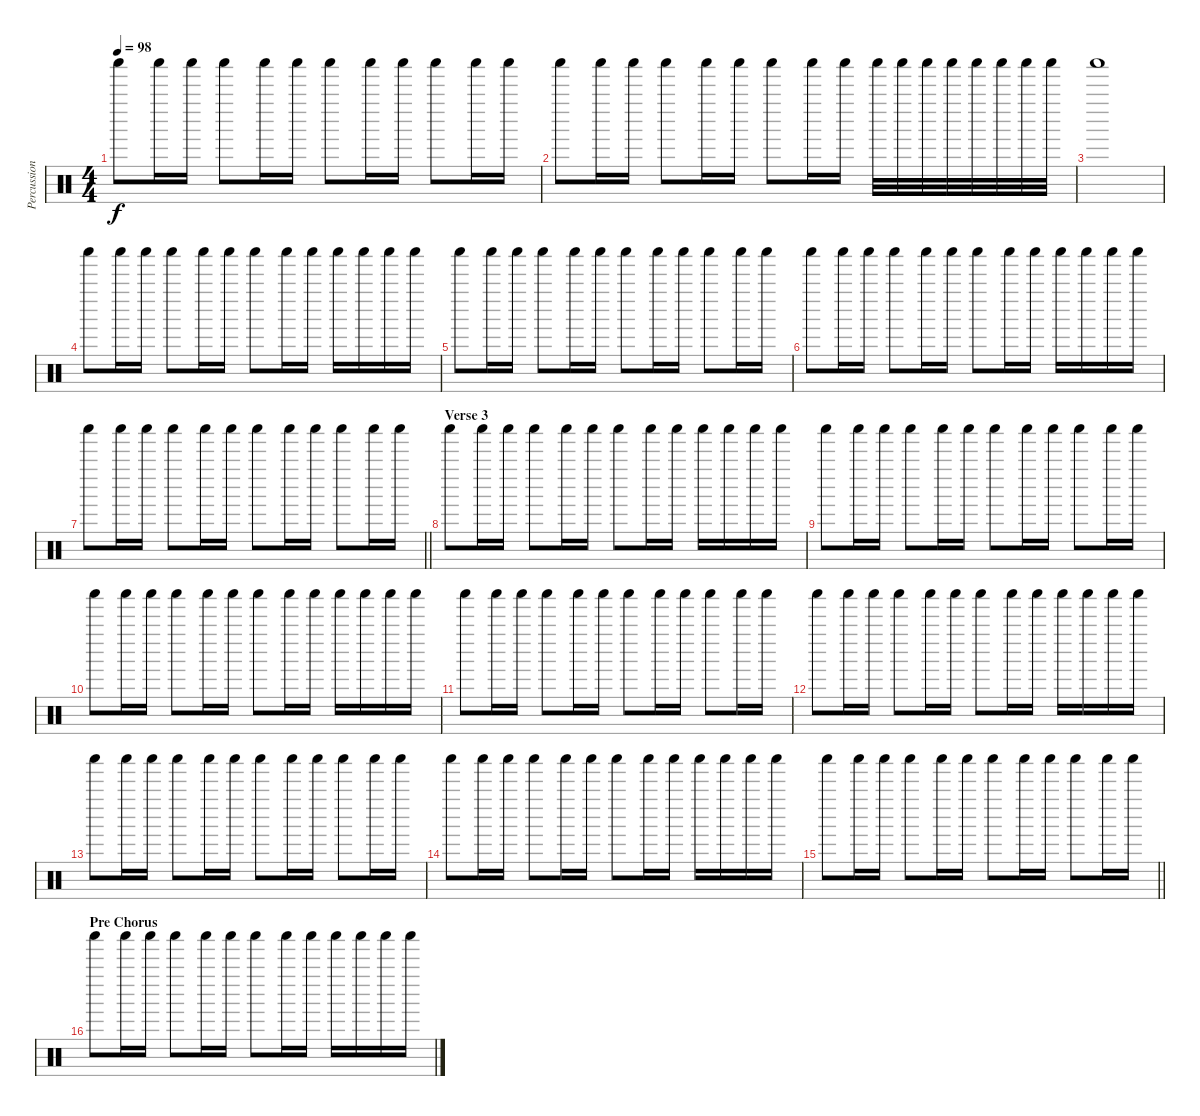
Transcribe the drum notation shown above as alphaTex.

\track ("Percussion" "Percussion") {instrument percussion}
\staff {score}
\articulation defaults
\ts (4 4)
\tempo 98
\clef neutral
\ks c "Shaker (hit)".8{dy f} "Shaker (hit)".16 "Shaker (hit)".16 "Shaker (hit)".8 "Shaker (hit)".16 "Shaker (hit)".16 "Shaker (hit)".8 "Shaker (hit)".16 "Shaker (hit)".16 "Shaker (hit)".8 "Shaker (hit)".16 "Shaker (hit)".16
|
"Shaker (hit)".8 "Shaker (hit)".16 "Shaker (hit)".16 "Shaker (hit)".8 "Shaker (hit)".16 "Shaker (hit)".16 "Shaker (hit)".8 "Shaker (hit)".16 "Shaker (hit)".16 "Shaker (hit)".32 "Shaker (hit)".32 "Shaker (hit)".32 "Shaker (hit)".32 "Shaker (hit)".32 "Shaker (hit)".32 "Shaker (hit)".32 "Shaker (hit)".32 |
"Shaker (hit)".1 |
"Shaker (hit)".8 "Shaker (hit)".16 "Shaker (hit)".16 "Shaker (hit)".8 "Shaker (hit)".16 "Shaker (hit)".16 "Shaker (hit)".8 "Shaker (hit)".16 "Shaker (hit)".16 "Shaker (hit)".16 "Shaker (hit)".16 "Shaker (hit)".16 "Shaker (hit)".16 |
"Shaker (hit)".8 "Shaker (hit)".16 "Shaker (hit)".16 "Shaker (hit)".8 "Shaker (hit)".16 "Shaker (hit)".16 "Shaker (hit)".8 "Shaker (hit)".16 "Shaker (hit)".16 "Shaker (hit)".8 "Shaker (hit)".16 "Shaker (hit)".16 |
"Shaker (hit)".8 "Shaker (hit)".16 "Shaker (hit)".16 "Shaker (hit)".8 "Shaker (hit)".16 "Shaker (hit)".16 "Shaker (hit)".8 "Shaker (hit)".16 "Shaker (hit)".16 "Shaker (hit)".16 "Shaker (hit)".16 "Shaker (hit)".16 "Shaker (hit)".16 |
\barLineRight lightlight "Shaker (hit)".8 "Shaker (hit)".16 "Shaker (hit)".16 "Shaker (hit)".8 "Shaker (hit)".16 "Shaker (hit)".16 "Shaker (hit)".8 "Shaker (hit)".16 "Shaker (hit)".16 "Shaker (hit)".8 "Shaker (hit)".16 "Shaker (hit)".16
|
\section ("" "Verse 3")
"Shaker (hit)".8 "Shaker (hit)".16 "Shaker (hit)".16 "Shaker (hit)".8 "Shaker (hit)".16 "Shaker (hit)".16 "Shaker (hit)".8 "Shaker (hit)".16 "Shaker (hit)".16 "Shaker (hit)".16 "Shaker (hit)".16 "Shaker (hit)".16 "Shaker (hit)".16 |
"Shaker (hit)".8 "Shaker (hit)".16 "Shaker (hit)".16 "Shaker (hit)".8 "Shaker (hit)".16 "Shaker (hit)".16 "Shaker (hit)".8 "Shaker (hit)".16 "Shaker (hit)".16 "Shaker (hit)".8 "Shaker (hit)".16 "Shaker (hit)".16 |
"Shaker (hit)".8 "Shaker (hit)".16 "Shaker (hit)".16 "Shaker (hit)".8 "Shaker (hit)".16 "Shaker (hit)".16 "Shaker (hit)".8 "Shaker (hit)".16 "Shaker (hit)".16 "Shaker (hit)".16 "Shaker (hit)".16 "Shaker (hit)".16 "Shaker (hit)".16 |
"Shaker (hit)".8 "Shaker (hit)".16 "Shaker (hit)".16 "Shaker (hit)".8 "Shaker (hit)".16 "Shaker (hit)".16 "Shaker (hit)".8 "Shaker (hit)".16 "Shaker (hit)".16 "Shaker (hit)".8 "Shaker (hit)".16 "Shaker (hit)".16 |
"Shaker (hit)".8 "Shaker (hit)".16 "Shaker (hit)".16 "Shaker (hit)".8 "Shaker (hit)".16 "Shaker (hit)".16 "Shaker (hit)".8 "Shaker (hit)".16 "Shaker (hit)".16 "Shaker (hit)".16 "Shaker (hit)".16 "Shaker (hit)".16 "Shaker (hit)".16 |
"Shaker (hit)".8 "Shaker (hit)".16 "Shaker (hit)".16 "Shaker (hit)".8 "Shaker (hit)".16 "Shaker (hit)".16 "Shaker (hit)".8 "Shaker (hit)".16 "Shaker (hit)".16 "Shaker (hit)".8 "Shaker (hit)".16 "Shaker (hit)".16 |
"Shaker (hit)".8 "Shaker (hit)".16 "Shaker (hit)".16 "Shaker (hit)".8 "Shaker (hit)".16 "Shaker (hit)".16 "Shaker (hit)".8 "Shaker (hit)".16 "Shaker (hit)".16 "Shaker (hit)".16 "Shaker (hit)".16 "Shaker (hit)".16 "Shaker (hit)".16 |
\barLineRight lightlight "Shaker (hit)".8 "Shaker (hit)".16 "Shaker (hit)".16 "Shaker (hit)".8 "Shaker (hit)".16 "Shaker (hit)".16 "Shaker (hit)".8 "Shaker (hit)".16 "Shaker (hit)".16 "Shaker (hit)".8 "Shaker (hit)".16 "Shaker (hit)".16
|
\section ("" "Pre Chorus")
"Shaker (hit)".8 "Shaker (hit)".16 "Shaker (hit)".16 "Shaker (hit)".8 "Shaker (hit)".16 "Shaker (hit)".16 "Shaker (hit)".8 "Shaker (hit)".16 "Shaker (hit)".16 "Shaker (hit)".16 "Shaker (hit)".16 "Shaker (hit)".16 "Shaker (hit)".16
